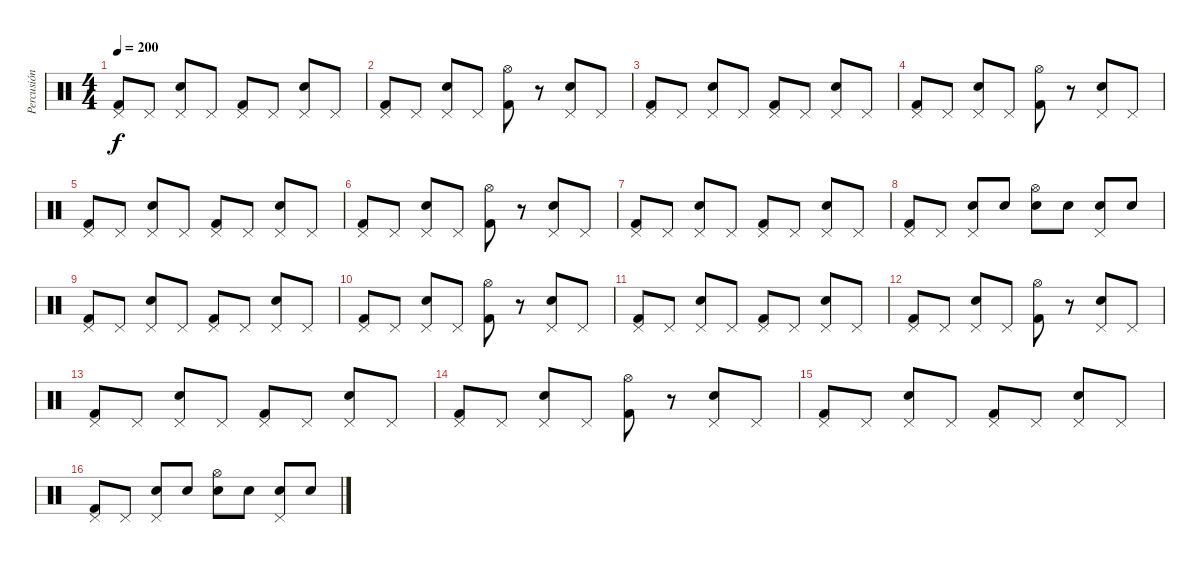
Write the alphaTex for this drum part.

\track ("Percusión" "Percusión") {instrument percussion}
\staff {score}
\articulation defaults
\ts (4 4)
\tempo 200
\clef neutral
\ks c
("Kick (hit) 2" "Pedal Hi-Hat (hit)").8{dy f} "Pedal Hi-Hat (hit)".8 ("Electric Snare (hit)" "Pedal Hi-Hat (hit)").8 "Pedal Hi-Hat (hit)".8 ("Kick (hit) 2" "Pedal Hi-Hat (hit)").8 "Pedal Hi-Hat (hit)".8 ("Electric Snare (hit)" "Pedal Hi-Hat (hit)").8 "Pedal Hi-Hat (hit)".8 |
("Kick (hit) 2" "Pedal Hi-Hat (hit)").8 "Pedal Hi-Hat (hit)".8 ("Electric Snare (hit)" "Pedal Hi-Hat (hit)").8 "Pedal Hi-Hat (hit)".8 ("Kick (hit) 2" "Hi-Hat (open)").8 r.8 ("Electric Snare (hit)" "Pedal Hi-Hat (hit)").8 "Pedal Hi-Hat (hit)".8 |
("Kick (hit) 2" "Pedal Hi-Hat (hit)").8 "Pedal Hi-Hat (hit)".8 ("Electric Snare (hit)" "Pedal Hi-Hat (hit)").8 "Pedal Hi-Hat (hit)".8 ("Kick (hit) 2" "Pedal Hi-Hat (hit)").8 "Pedal Hi-Hat (hit)".8 ("Electric Snare (hit)" "Pedal Hi-Hat (hit)").8 "Pedal Hi-Hat (hit)".8 |
("Kick (hit) 2" "Pedal Hi-Hat (hit)").8 "Pedal Hi-Hat (hit)".8 ("Electric Snare (hit)" "Pedal Hi-Hat (hit)").8 "Pedal Hi-Hat (hit)".8 ("Kick (hit) 2" "Hi-Hat (open)").8 r.8 ("Electric Snare (hit)" "Pedal Hi-Hat (hit)").8 "Pedal Hi-Hat (hit)".8 |
("Kick (hit) 2" "Pedal Hi-Hat (hit)").8 "Pedal Hi-Hat (hit)".8 ("Electric Snare (hit)" "Pedal Hi-Hat (hit)").8 "Pedal Hi-Hat (hit)".8 ("Kick (hit) 2" "Pedal Hi-Hat (hit)").8 "Pedal Hi-Hat (hit)".8 ("Electric Snare (hit)" "Pedal Hi-Hat (hit)").8 "Pedal Hi-Hat (hit)".8 |
("Kick (hit) 2" "Pedal Hi-Hat (hit)").8 "Pedal Hi-Hat (hit)".8 ("Electric Snare (hit)" "Pedal Hi-Hat (hit)").8 "Pedal Hi-Hat (hit)".8 ("Kick (hit) 2" "Hi-Hat (open)").8 r.8 ("Electric Snare (hit)" "Pedal Hi-Hat (hit)").8 "Pedal Hi-Hat (hit)".8 |
("Kick (hit) 2" "Pedal Hi-Hat (hit)").8 "Pedal Hi-Hat (hit)".8 ("Electric Snare (hit)" "Pedal Hi-Hat (hit)").8 "Pedal Hi-Hat (hit)".8 ("Kick (hit) 2" "Pedal Hi-Hat (hit)").8 "Pedal Hi-Hat (hit)".8 ("Electric Snare (hit)" "Pedal Hi-Hat (hit)").8 "Pedal Hi-Hat (hit)".8 |
("Kick (hit) 2" "Pedal Hi-Hat (hit)").8 "Pedal Hi-Hat (hit)".8 ("Electric Snare (hit)" "Pedal Hi-Hat (hit)").8 "Electric Snare (hit)".8 ("Electric Snare (hit)" "Hi-Hat (open)").8 "Electric Snare (hit)".8 ("Electric Snare (hit)" "Pedal Hi-Hat (hit)").8 "Electric Snare (hit)".8 |
("Kick (hit) 2" "Pedal Hi-Hat (hit)").8 "Pedal Hi-Hat (hit)".8 ("Electric Snare (hit)" "Pedal Hi-Hat (hit)").8 "Pedal Hi-Hat (hit)".8 ("Kick (hit) 2" "Pedal Hi-Hat (hit)").8 "Pedal Hi-Hat (hit)".8 ("Electric Snare (hit)" "Pedal Hi-Hat (hit)").8 "Pedal Hi-Hat (hit)".8 |
("Kick (hit) 2" "Pedal Hi-Hat (hit)").8 "Pedal Hi-Hat (hit)".8 ("Electric Snare (hit)" "Pedal Hi-Hat (hit)").8 "Pedal Hi-Hat (hit)".8 ("Kick (hit) 2" "Hi-Hat (open)").8 r.8 ("Electric Snare (hit)" "Pedal Hi-Hat (hit)").8 "Pedal Hi-Hat (hit)".8 |
("Kick (hit) 2" "Pedal Hi-Hat (hit)").8 "Pedal Hi-Hat (hit)".8 ("Electric Snare (hit)" "Pedal Hi-Hat (hit)").8 "Pedal Hi-Hat (hit)".8 ("Kick (hit) 2" "Pedal Hi-Hat (hit)").8 "Pedal Hi-Hat (hit)".8 ("Electric Snare (hit)" "Pedal Hi-Hat (hit)").8 "Pedal Hi-Hat (hit)".8 |
("Kick (hit) 2" "Pedal Hi-Hat (hit)").8 "Pedal Hi-Hat (hit)".8 ("Electric Snare (hit)" "Pedal Hi-Hat (hit)").8 "Pedal Hi-Hat (hit)".8 ("Kick (hit) 2" "Hi-Hat (open)").8 r.8 ("Electric Snare (hit)" "Pedal Hi-Hat (hit)").8 "Pedal Hi-Hat (hit)".8 |
("Kick (hit) 2" "Pedal Hi-Hat (hit)").8 "Pedal Hi-Hat (hit)".8 ("Electric Snare (hit)" "Pedal Hi-Hat (hit)").8 "Pedal Hi-Hat (hit)".8 ("Kick (hit) 2" "Pedal Hi-Hat (hit)").8 "Pedal Hi-Hat (hit)".8 ("Electric Snare (hit)" "Pedal Hi-Hat (hit)").8 "Pedal Hi-Hat (hit)".8 |
("Kick (hit) 2" "Pedal Hi-Hat (hit)").8 "Pedal Hi-Hat (hit)".8 ("Electric Snare (hit)" "Pedal Hi-Hat (hit)").8 "Pedal Hi-Hat (hit)".8 ("Kick (hit) 2" "Hi-Hat (open)").8 r.8 ("Electric Snare (hit)" "Pedal Hi-Hat (hit)").8 "Pedal Hi-Hat (hit)".8 |
("Kick (hit) 2" "Pedal Hi-Hat (hit)").8 "Pedal Hi-Hat (hit)".8 ("Electric Snare (hit)" "Pedal Hi-Hat (hit)").8 "Pedal Hi-Hat (hit)".8 ("Kick (hit) 2" "Pedal Hi-Hat (hit)").8 "Pedal Hi-Hat (hit)".8 ("Electric Snare (hit)" "Pedal Hi-Hat (hit)").8 "Pedal Hi-Hat (hit)".8 |
("Kick (hit) 2" "Pedal Hi-Hat (hit)").8 "Pedal Hi-Hat (hit)".8 ("Electric Snare (hit)" "Pedal Hi-Hat (hit)").8 "Electric Snare (hit)".8 ("Electric Snare (hit)" "Hi-Hat (open)").8 "Electric Snare (hit)".8 ("Electric Snare (hit)" "Pedal Hi-Hat (hit)").8 "Electric Snare (hit)".8
